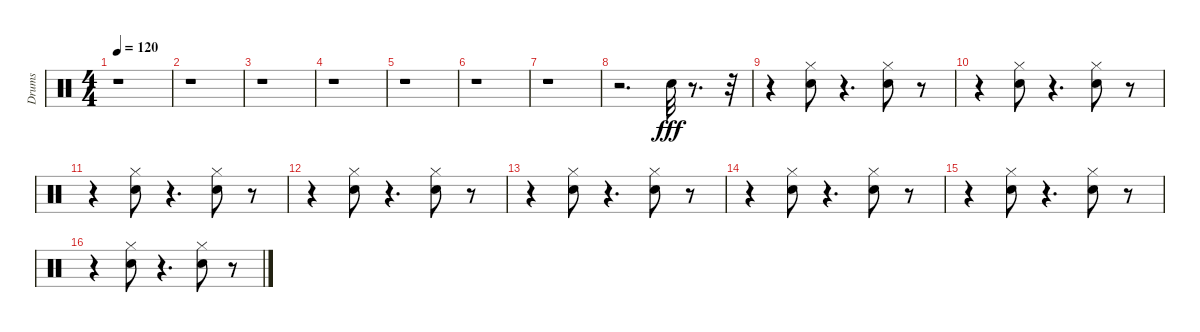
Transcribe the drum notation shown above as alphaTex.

\track ("Drums" "Drums") {instrument percussion}
\staff {score}
\articulation defaults
\ts (4 4)
\tempo 120
\clef neutral
\ks c
r.1{dy fff} |
r.1 |
r.1 |
r.1 |
r.1 |
r.1 |
r.1 |
r.2{d} "Electric Snare (hit)".32 r.8{d} r.32 |
r.4 ("Hi-Hat (closed)" "Electric Snare (hit)").8 r.4{d} ("Hi-Hat (closed)" "Electric Snare (hit)").8 r.8 |
r.4 ("Hi-Hat (closed)" "Electric Snare (hit)").8 r.4{d} ("Hi-Hat (closed)" "Electric Snare (hit)").8 r.8 |
r.4 ("Hi-Hat (closed)" "Electric Snare (hit)").8 r.4{d} ("Hi-Hat (closed)" "Electric Snare (hit)").8 r.8 |
r.4 ("Hi-Hat (closed)" "Electric Snare (hit)").8 r.4{d} ("Hi-Hat (closed)" "Electric Snare (hit)").8 r.8 |
r.4 ("Hi-Hat (closed)" "Electric Snare (hit)").8 r.4{d} ("Hi-Hat (closed)" "Electric Snare (hit)").8 r.8 |
r.4 ("Hi-Hat (closed)" "Electric Snare (hit)").8 r.4{d} ("Hi-Hat (closed)" "Electric Snare (hit)").8 r.8 |
r.4 ("Hi-Hat (closed)" "Electric Snare (hit)").8 r.4{d} ("Hi-Hat (closed)" "Electric Snare (hit)").8 r.8 |
r.4 ("Hi-Hat (closed)" "Electric Snare (hit)").8 r.4{d} ("Hi-Hat (closed)" "Electric Snare (hit)").8 r.8
